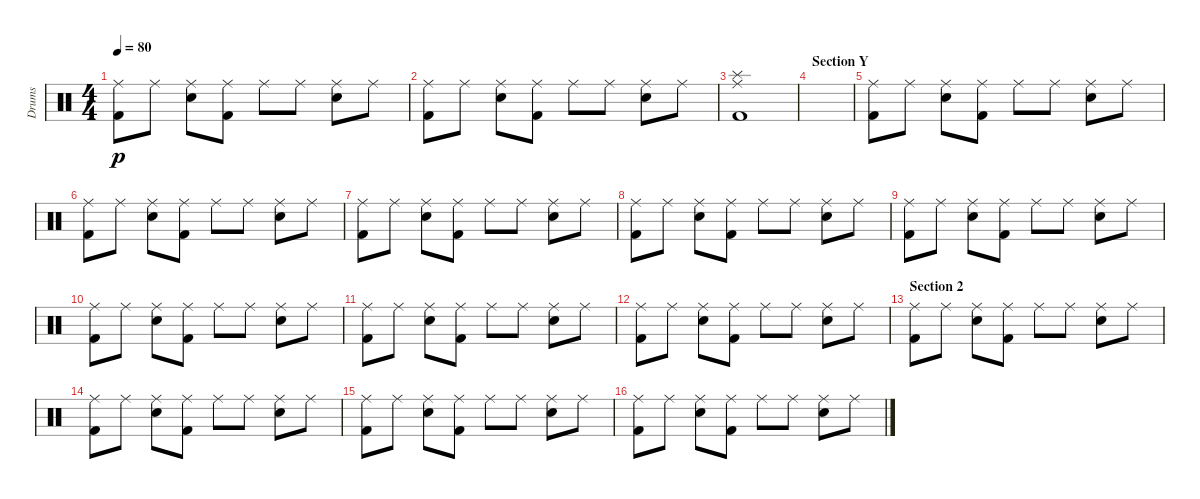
\track ("Drums" "Drums") {instrument percussion}
\staff {score}
\articulation defaults
\ts (4 4)
\tempo 80
\clef neutral
\ks c
("Ride (middle)" "Kick (hit) 2").8{dy p} "Ride (middle)".8 ("Ride (middle)" "Electric Snare (hit)").8 ("Ride (middle)" "Kick (hit) 2").8 "Ride (middle)".8 "Ride (middle)".8 ("Ride (middle)" "Electric Snare (hit)").8 "Ride (middle)".8 |
("Ride (middle)" "Kick (hit) 2").8 "Ride (middle)".8 ("Ride (middle)" "Electric Snare (hit)").8 ("Ride (middle)" "Kick (hit) 2").8 "Ride (middle)".8 "Ride (middle)".8 ("Ride (middle)" "Electric Snare (hit)").8 "Ride (middle)".8 |
("Kick (hit) 2" "Ride (middle)" "Splash (hit)").1 |
\section ("" "Section Y")
|
("Ride (middle)" "Kick (hit) 2").8 "Ride (middle)".8 ("Ride (middle)" "Electric Snare (hit)").8 ("Ride (middle)" "Kick (hit) 2").8 "Ride (middle)".8 "Ride (middle)".8 ("Ride (middle)" "Electric Snare (hit)").8 "Ride (middle)".8 |
("Ride (middle)" "Kick (hit) 2").8 "Ride (middle)".8 ("Ride (middle)" "Electric Snare (hit)").8 ("Ride (middle)" "Kick (hit) 2").8 "Ride (middle)".8 "Ride (middle)".8 ("Ride (middle)" "Electric Snare (hit)").8 "Ride (middle)".8 |
("Ride (middle)" "Kick (hit) 2").8 "Ride (middle)".8 ("Ride (middle)" "Electric Snare (hit)").8 ("Ride (middle)" "Kick (hit) 2").8 "Ride (middle)".8 "Ride (middle)".8 ("Ride (middle)" "Electric Snare (hit)").8 "Ride (middle)".8 |
("Ride (middle)" "Kick (hit) 2").8 "Ride (middle)".8 ("Ride (middle)" "Electric Snare (hit)").8 ("Ride (middle)" "Kick (hit) 2").8 "Ride (middle)".8 "Ride (middle)".8 ("Ride (middle)" "Electric Snare (hit)").8 "Ride (middle)".8 |
("Ride (middle)" "Kick (hit) 2").8 "Ride (middle)".8 ("Ride (middle)" "Electric Snare (hit)").8 ("Ride (middle)" "Kick (hit) 2").8 "Ride (middle)".8 "Ride (middle)".8 ("Ride (middle)" "Electric Snare (hit)").8 "Ride (middle)".8 |
("Ride (middle)" "Kick (hit) 2").8 "Ride (middle)".8 ("Ride (middle)" "Electric Snare (hit)").8 ("Ride (middle)" "Kick (hit) 2").8 "Ride (middle)".8 "Ride (middle)".8 ("Ride (middle)" "Electric Snare (hit)").8 "Ride (middle)".8 |
("Ride (middle)" "Kick (hit) 2").8 "Ride (middle)".8 ("Ride (middle)" "Electric Snare (hit)").8 ("Ride (middle)" "Kick (hit) 2").8 "Ride (middle)".8 "Ride (middle)".8 ("Ride (middle)" "Electric Snare (hit)").8 "Ride (middle)".8 |
("Ride (middle)" "Kick (hit) 2").8 "Ride (middle)".8 ("Ride (middle)" "Electric Snare (hit)").8 ("Ride (middle)" "Kick (hit) 2").8 "Ride (middle)".8 "Ride (middle)".8 ("Ride (middle)" "Electric Snare (hit)").8 "Ride (middle)".8 |
\section ("" "Section 2")
("Ride (middle)" "Kick (hit) 2").8 "Ride (middle)".8 ("Ride (middle)" "Electric Snare (hit)").8 ("Ride (middle)" "Kick (hit) 2").8 "Ride (middle)".8 "Ride (middle)".8 ("Ride (middle)" "Electric Snare (hit)").8 "Ride (middle)".8 |
("Ride (middle)" "Kick (hit) 2").8 "Ride (middle)".8 ("Ride (middle)" "Electric Snare (hit)").8 ("Ride (middle)" "Kick (hit) 2").8 "Ride (middle)".8 "Ride (middle)".8 ("Ride (middle)" "Electric Snare (hit)").8 "Ride (middle)".8 |
("Ride (middle)" "Kick (hit) 2").8 "Ride (middle)".8 ("Ride (middle)" "Electric Snare (hit)").8 ("Ride (middle)" "Kick (hit) 2").8 "Ride (middle)".8 "Ride (middle)".8 ("Ride (middle)" "Electric Snare (hit)").8 "Ride (middle)".8 |
("Ride (middle)" "Kick (hit) 2").8 "Ride (middle)".8 ("Ride (middle)" "Electric Snare (hit)").8 ("Ride (middle)" "Kick (hit) 2").8 "Ride (middle)".8 "Ride (middle)".8 ("Ride (middle)" "Electric Snare (hit)").8 "Ride (middle)".8
